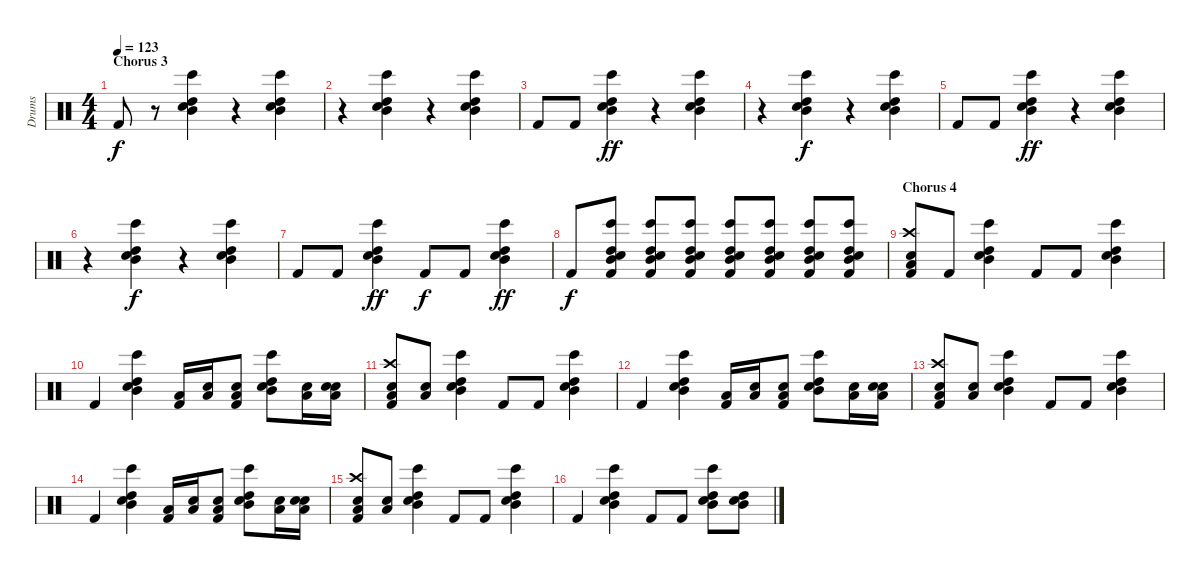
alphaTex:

\track ("Drums" "Drums") {instrument percussion}
\staff {score}
\articulation defaults
\ts (4 4)
\section ("" "Chorus 3")
\tempo 123
\clef neutral
\ks c "Kick (hit) 2".8{dy f}
r.8 ("Bongo High (hit)" "High Tom (hit)" "Mid Tom (hit)" "Snare (hit) 2").4 r.4 ("Bongo High (hit)" "High Tom (hit)" "Mid Tom (hit)" "Snare (hit) 2").4 |
r.4 ("Bongo High (hit)" "High Tom (hit)" "Mid Tom (hit)" "Snare (hit) 2").4 r.4 ("Bongo High (hit)" "High Tom (hit)" "Mid Tom (hit)" "Snare (hit) 2").4 |
"Kick (hit) 2".8 "Kick (hit) 2".8 ("Bongo High (hit)" "High Tom (hit)" "Mid Tom (hit)" "Snare (hit) 2").4{dy ff} r.4 ("Bongo High (hit)" "High Tom (hit)" "Mid Tom (hit)" "Snare (hit) 2").4 |
r.4 ("Bongo High (hit)" "High Tom (hit)" "Mid Tom (hit)" "Snare (hit) 2").4{dy f} r.4 ("Bongo High (hit)" "High Tom (hit)" "Mid Tom (hit)" "Snare (hit) 2").4 |
"Kick (hit) 2".8 "Kick (hit) 2".8 ("Bongo High (hit)" "High Tom (hit)" "Mid Tom (hit)" "Snare (hit) 2").4{dy ff} r.4 ("Bongo High (hit)" "High Tom (hit)" "Mid Tom (hit)" "Snare (hit) 2").4 |
r.4 ("Bongo High (hit)" "High Tom (hit)" "Mid Tom (hit)" "Snare (hit) 2").4{dy f} r.4 ("Bongo High (hit)" "High Tom (hit)" "Mid Tom (hit)" "Snare (hit) 2").4 |
"Kick (hit) 2".8 "Kick (hit) 2".8 ("Bongo High (hit)" "High Tom (hit)" "Mid Tom (hit)" "Snare (hit) 2").4{dy ff} "Kick (hit) 2".8{dy f} "Kick (hit) 2".8 ("Bongo High (hit)" "High Tom (hit)" "Mid Tom (hit)" "Snare (hit) 2").4{dy ff} |
"Kick (hit) 2".8{dy f} ("Bongo High (hit)" "High Tom (hit)" "Mid Tom (hit)" "Snare (hit) 2" "Kick (hit) 2").8 ("Bongo High (hit)" "High Tom (hit)" "Mid Tom (hit)" "Snare (hit) 2" "Kick (hit) 2").8 ("Bongo High (hit)" "High Tom (hit)" "Mid Tom (hit)" "Snare (hit) 2" "Kick (hit) 2").8 ("Bongo High (hit)" "High Tom (hit)" "Mid Tom (hit)" "Snare (hit) 2" "Kick (hit) 2").8 ("Bongo High (hit)" "High Tom (hit)" "Mid Tom (hit)" "Snare (hit) 2" "Kick (hit) 2").8 ("Bongo High (hit)" "High Tom (hit)" "Mid Tom (hit)" "Snare (hit) 2" "Kick (hit) 2").8 ("Bongo High (hit)" "High Tom (hit)" "Mid Tom (hit)" "Snare (hit) 2" "Kick (hit) 2").8 |
\section ("" "Chorus 4")
("Crash high (hit)" "Snare (hit) 2" "Low Floor Tom (hit)" "Kick (hit) 2").8 "Kick (hit) 2".8 ("Bongo High (hit)" "High Tom (hit)" "Mid Tom (hit)" "Snare (hit) 2").4 "Kick (hit) 2".8 "Kick (hit) 2".8 ("Bongo High (hit)" "High Tom (hit)" "Mid Tom (hit)" "Snare (hit) 2").4 |
"Kick (hit) 2".4 ("Bongo High (hit)" "High Tom (hit)" "Mid Tom (hit)" "Snare (hit) 2").4 ("Low Floor Tom (hit)" "Kick (hit) 2").16 ("Snare (hit) 2" "Low Floor Tom (hit)").16 ("Snare (hit) 2" "Low Floor Tom (hit)" "Kick (hit) 2").8 ("Bongo High (hit)" "High Tom (hit)" "Mid Tom (hit)" "Snare (hit) 2").8 ("Low Floor Tom (hit)" "Snare (hit) 2").16 ("Snare (hit) 2" "Low Floor Tom (hit)" "Snare (hit) 2").16 |
("Crash high (hit)" "Snare (hit) 2" "Low Floor Tom (hit)" "Kick (hit) 2").8 ("Snare (hit) 2" "Low Floor Tom (hit)").8 ("Bongo High (hit)" "High Tom (hit)" "Mid Tom (hit)" "Snare (hit) 2").4 "Kick (hit) 2".8 "Kick (hit) 2".8 ("Bongo High (hit)" "High Tom (hit)" "Mid Tom (hit)" "Snare (hit) 2").4 |
"Kick (hit) 2".4 ("Bongo High (hit)" "High Tom (hit)" "Mid Tom (hit)" "Snare (hit) 2").4 ("Low Floor Tom (hit)" "Kick (hit) 2").16 ("Snare (hit) 2" "Low Floor Tom (hit)").16 ("Snare (hit) 2" "Low Floor Tom (hit)" "Kick (hit) 2").8 ("Bongo High (hit)" "High Tom (hit)" "Mid Tom (hit)" "Snare (hit) 2").8 ("Low Floor Tom (hit)" "Snare (hit) 2").16 ("Snare (hit) 2" "Low Floor Tom (hit)" "Snare (hit) 2").16 |
("Crash high (hit)" "Snare (hit) 2" "Low Floor Tom (hit)" "Kick (hit) 2").8 ("Snare (hit) 2" "Low Floor Tom (hit)").8 ("Bongo High (hit)" "High Tom (hit)" "Mid Tom (hit)" "Snare (hit) 2").4 "Kick (hit) 2".8 "Kick (hit) 2".8 ("Bongo High (hit)" "High Tom (hit)" "Mid Tom (hit)" "Snare (hit) 2").4 |
"Kick (hit) 2".4 ("Bongo High (hit)" "High Tom (hit)" "Mid Tom (hit)" "Snare (hit) 2").4 ("Low Floor Tom (hit)" "Kick (hit) 2").16 ("Snare (hit) 2" "Low Floor Tom (hit)").16 ("Snare (hit) 2" "Low Floor Tom (hit)" "Kick (hit) 2").8 ("Bongo High (hit)" "High Tom (hit)" "Mid Tom (hit)" "Snare (hit) 2").8 ("Low Floor Tom (hit)" "Snare (hit) 2").16 ("Snare (hit) 2" "Low Floor Tom (hit)" "Snare (hit) 2").16 |
("Crash high (hit)" "Snare (hit) 2" "Low Floor Tom (hit)" "Kick (hit) 2").8 ("Snare (hit) 2" "Low Floor Tom (hit)").8 ("Bongo High (hit)" "High Tom (hit)" "Mid Tom (hit)" "Snare (hit) 2").4 "Kick (hit) 2".8 "Kick (hit) 2".8 ("Bongo High (hit)" "High Tom (hit)" "Mid Tom (hit)" "Snare (hit) 2").4 |
"Kick (hit) 2".4 ("Bongo High (hit)" "High Tom (hit)" "Mid Tom (hit)" "Snare (hit) 2").4 "Kick (hit) 2".8 "Kick (hit) 2".8 ("Bongo High (hit)" "High Tom (hit)" "Mid Tom (hit)" "Snare (hit) 2").8 ("High Tom (hit)" "Mid Tom (hit)" "Snare (hit) 2").8
